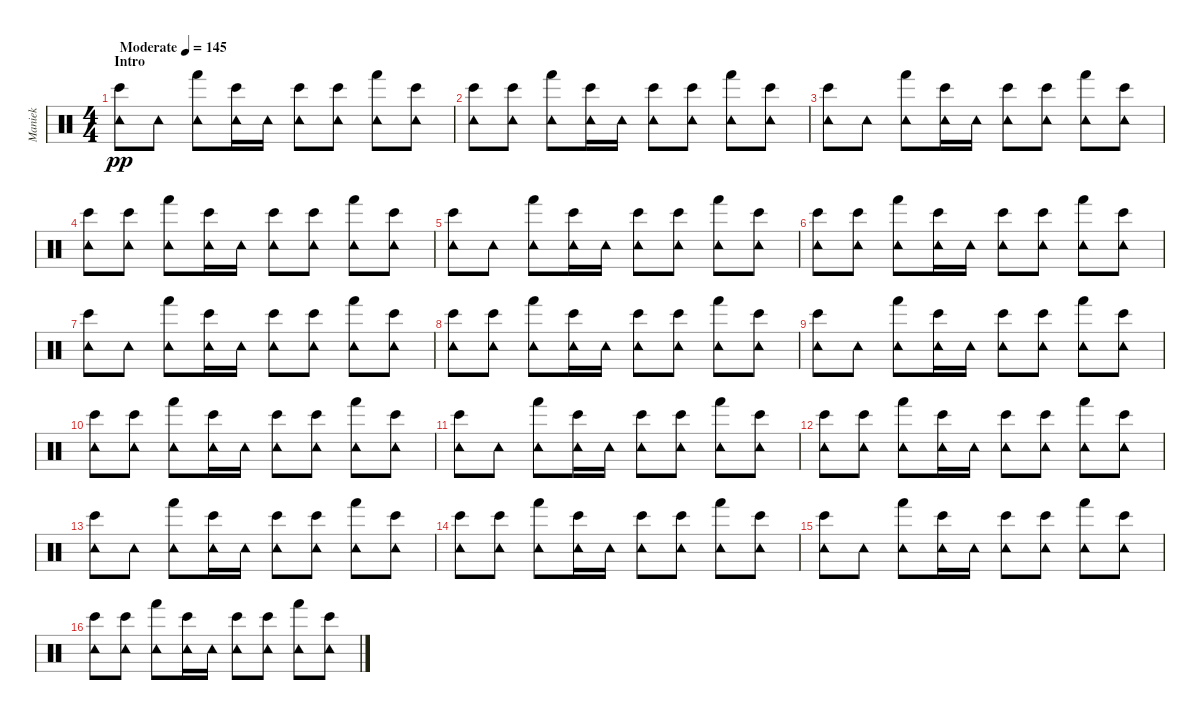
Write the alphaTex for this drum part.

\track ("Maniek" "Maniek") {instrument percussion}
\staff {score}
\articulation defaults
\ts (4 4)
\section ("" "Intro")
\tempo (145 "Moderate")
\clef neutral
\ks c
("Bongo High (hit)" "Tambourine (hit)").8{dy pp} "Tambourine (hit)".8 ("Hand (hit)" "Tambourine (hit)").8 ("Bongo High (hit)" "Tambourine (hit)").16 "Tambourine (hit)".16 ("Bongo High (hit)" "Tambourine (hit)").8 ("Bongo High (hit)" "Tambourine (hit)").8 ("Hand (hit)" "Tambourine (hit)").8 ("Bongo High (hit)" "Tambourine (hit)").8 |
("Bongo High (hit)" "Tambourine (hit)").8 ("Bongo High (hit)" "Tambourine (hit)").8 ("Hand (hit)" "Tambourine (hit)").8 ("Bongo High (hit)" "Tambourine (hit)").16 "Tambourine (hit)".16 ("Bongo High (hit)" "Tambourine (hit)").8 ("Bongo High (hit)" "Tambourine (hit)").8 ("Hand (hit)" "Tambourine (hit)").8 ("Bongo High (hit)" "Tambourine (hit)").8 |
("Bongo High (hit)" "Tambourine (hit)").8 "Tambourine (hit)".8 ("Hand (hit)" "Tambourine (hit)").8 ("Bongo High (hit)" "Tambourine (hit)").16 "Tambourine (hit)".16 ("Bongo High (hit)" "Tambourine (hit)").8 ("Bongo High (hit)" "Tambourine (hit)").8 ("Hand (hit)" "Tambourine (hit)").8 ("Bongo High (hit)" "Tambourine (hit)").8 |
("Bongo High (hit)" "Tambourine (hit)").8 ("Bongo High (hit)" "Tambourine (hit)").8 ("Hand (hit)" "Tambourine (hit)").8 ("Bongo High (hit)" "Tambourine (hit)").16 "Tambourine (hit)".16 ("Bongo High (hit)" "Tambourine (hit)").8 ("Bongo High (hit)" "Tambourine (hit)").8 ("Hand (hit)" "Tambourine (hit)").8 ("Bongo High (hit)" "Tambourine (hit)").8 |
("Bongo High (hit)" "Tambourine (hit)").8 "Tambourine (hit)".8 ("Hand (hit)" "Tambourine (hit)").8 ("Bongo High (hit)" "Tambourine (hit)").16 "Tambourine (hit)".16 ("Bongo High (hit)" "Tambourine (hit)").8 ("Bongo High (hit)" "Tambourine (hit)").8 ("Hand (hit)" "Tambourine (hit)").8 ("Bongo High (hit)" "Tambourine (hit)").8 |
("Bongo High (hit)" "Tambourine (hit)").8 ("Bongo High (hit)" "Tambourine (hit)").8 ("Hand (hit)" "Tambourine (hit)").8 ("Bongo High (hit)" "Tambourine (hit)").16 "Tambourine (hit)".16 ("Bongo High (hit)" "Tambourine (hit)").8 ("Bongo High (hit)" "Tambourine (hit)").8 ("Hand (hit)" "Tambourine (hit)").8 ("Bongo High (hit)" "Tambourine (hit)").8 |
("Bongo High (hit)" "Tambourine (hit)").8 "Tambourine (hit)".8 ("Hand (hit)" "Tambourine (hit)").8 ("Bongo High (hit)" "Tambourine (hit)").16 "Tambourine (hit)".16 ("Bongo High (hit)" "Tambourine (hit)").8 ("Bongo High (hit)" "Tambourine (hit)").8 ("Hand (hit)" "Tambourine (hit)").8 ("Bongo High (hit)" "Tambourine (hit)").8 |
("Bongo High (hit)" "Tambourine (hit)").8 ("Bongo High (hit)" "Tambourine (hit)").8 ("Hand (hit)" "Tambourine (hit)").8 ("Bongo High (hit)" "Tambourine (hit)").16 "Tambourine (hit)".16 ("Bongo High (hit)" "Tambourine (hit)").8 ("Bongo High (hit)" "Tambourine (hit)").8 ("Hand (hit)" "Tambourine (hit)").8 ("Bongo High (hit)" "Tambourine (hit)").8 |
("Bongo High (hit)" "Tambourine (hit)").8 "Tambourine (hit)".8 ("Hand (hit)" "Tambourine (hit)").8 ("Bongo High (hit)" "Tambourine (hit)").16 "Tambourine (hit)".16 ("Bongo High (hit)" "Tambourine (hit)").8 ("Bongo High (hit)" "Tambourine (hit)").8 ("Hand (hit)" "Tambourine (hit)").8 ("Bongo High (hit)" "Tambourine (hit)").8 |
("Bongo High (hit)" "Tambourine (hit)").8 ("Bongo High (hit)" "Tambourine (hit)").8 ("Hand (hit)" "Tambourine (hit)").8 ("Bongo High (hit)" "Tambourine (hit)").16 "Tambourine (hit)".16 ("Bongo High (hit)" "Tambourine (hit)").8 ("Bongo High (hit)" "Tambourine (hit)").8 ("Hand (hit)" "Tambourine (hit)").8 ("Bongo High (hit)" "Tambourine (hit)").8 |
("Bongo High (hit)" "Tambourine (hit)").8 "Tambourine (hit)".8 ("Hand (hit)" "Tambourine (hit)").8 ("Bongo High (hit)" "Tambourine (hit)").16 "Tambourine (hit)".16 ("Bongo High (hit)" "Tambourine (hit)").8 ("Bongo High (hit)" "Tambourine (hit)").8 ("Hand (hit)" "Tambourine (hit)").8 ("Bongo High (hit)" "Tambourine (hit)").8 |
("Bongo High (hit)" "Tambourine (hit)").8 ("Bongo High (hit)" "Tambourine (hit)").8 ("Hand (hit)" "Tambourine (hit)").8 ("Bongo High (hit)" "Tambourine (hit)").16 "Tambourine (hit)".16 ("Bongo High (hit)" "Tambourine (hit)").8 ("Bongo High (hit)" "Tambourine (hit)").8 ("Hand (hit)" "Tambourine (hit)").8 ("Bongo High (hit)" "Tambourine (hit)").8 |
("Bongo High (hit)" "Tambourine (hit)").8 "Tambourine (hit)".8 ("Hand (hit)" "Tambourine (hit)").8 ("Bongo High (hit)" "Tambourine (hit)").16 "Tambourine (hit)".16 ("Bongo High (hit)" "Tambourine (hit)").8 ("Bongo High (hit)" "Tambourine (hit)").8 ("Hand (hit)" "Tambourine (hit)").8 ("Bongo High (hit)" "Tambourine (hit)").8 |
("Bongo High (hit)" "Tambourine (hit)").8 ("Bongo High (hit)" "Tambourine (hit)").8 ("Hand (hit)" "Tambourine (hit)").8 ("Bongo High (hit)" "Tambourine (hit)").16 "Tambourine (hit)".16 ("Bongo High (hit)" "Tambourine (hit)").8 ("Bongo High (hit)" "Tambourine (hit)").8 ("Hand (hit)" "Tambourine (hit)").8 ("Bongo High (hit)" "Tambourine (hit)").8 |
("Bongo High (hit)" "Tambourine (hit)").8 "Tambourine (hit)".8 ("Hand (hit)" "Tambourine (hit)").8 ("Bongo High (hit)" "Tambourine (hit)").16 "Tambourine (hit)".16 ("Bongo High (hit)" "Tambourine (hit)").8 ("Bongo High (hit)" "Tambourine (hit)").8 ("Hand (hit)" "Tambourine (hit)").8 ("Bongo High (hit)" "Tambourine (hit)").8 |
("Bongo High (hit)" "Tambourine (hit)").8 ("Bongo High (hit)" "Tambourine (hit)").8 ("Hand (hit)" "Tambourine (hit)").8 ("Bongo High (hit)" "Tambourine (hit)").16 "Tambourine (hit)".16 ("Bongo High (hit)" "Tambourine (hit)").8 ("Bongo High (hit)" "Tambourine (hit)").8 ("Hand (hit)" "Tambourine (hit)").8 ("Bongo High (hit)" "Tambourine (hit)").8
